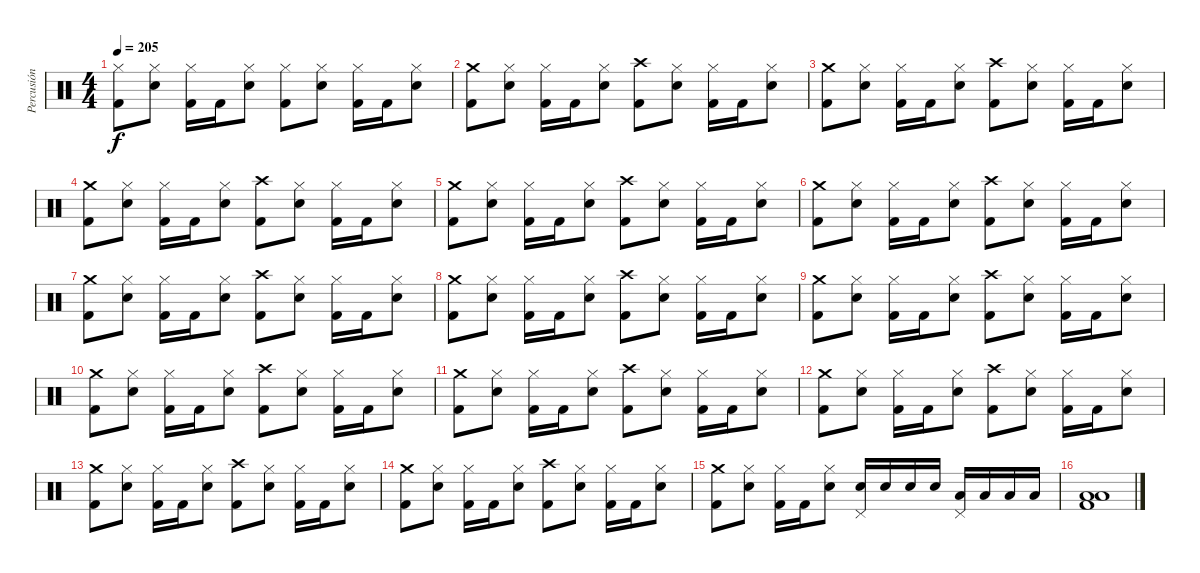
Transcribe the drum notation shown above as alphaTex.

\track ("Percusión" "Percusión") {instrument percussion}
\staff {score}
\articulation defaults
\ts (4 4)
\tempo 205
\clef neutral
\ks c
("Hi-Hat (closed)" "Kick (hit) 2").8{dy f} ("Hi-Hat (closed)" "Snare (hit) 2").8 ("Hi-Hat (closed)" "Kick (hit) 2").16 "Kick (hit) 2".16 ("Hi-Hat (closed)" "Snare (hit) 2").8 ("Hi-Hat (closed)" "Kick (hit) 2").8 ("Hi-Hat (closed)" "Snare (hit) 2").8 ("Hi-Hat (closed)" "Kick (hit) 2").16 "Kick (hit) 2".16 ("Hi-Hat (closed)" "Snare (hit) 2").8 |
("Crash medium (hit)" "Kick (hit) 2").8 ("Hi-Hat (closed)" "Snare (hit) 2").8 ("Hi-Hat (closed)" "Kick (hit) 2").16 "Kick (hit) 2".16 ("Hi-Hat (closed)" "Snare (hit) 2").8 ("Crash high (hit)" "Kick (hit) 2").8 ("Hi-Hat (closed)" "Snare (hit) 2").8 ("Hi-Hat (closed)" "Kick (hit) 2").16 "Kick (hit) 2".16 ("Hi-Hat (closed)" "Snare (hit) 2").8 |
("Crash medium (hit)" "Kick (hit) 2").8 ("Hi-Hat (closed)" "Snare (hit) 2").8 ("Hi-Hat (closed)" "Kick (hit) 2").16 "Kick (hit) 2".16 ("Hi-Hat (closed)" "Snare (hit) 2").8 ("Crash high (hit)" "Kick (hit) 2").8 ("Hi-Hat (closed)" "Snare (hit) 2").8 ("Hi-Hat (closed)" "Kick (hit) 2").16 "Kick (hit) 2".16 ("Hi-Hat (closed)" "Snare (hit) 2").8 |
("Crash medium (hit)" "Kick (hit) 2").8 ("Hi-Hat (closed)" "Snare (hit) 2").8 ("Hi-Hat (closed)" "Kick (hit) 2").16 "Kick (hit) 2".16 ("Hi-Hat (closed)" "Snare (hit) 2").8 ("Crash high (hit)" "Kick (hit) 2").8 ("Hi-Hat (closed)" "Snare (hit) 2").8 ("Hi-Hat (closed)" "Kick (hit) 2").16 "Kick (hit) 2".16 ("Hi-Hat (closed)" "Snare (hit) 2").8 |
("Crash medium (hit)" "Kick (hit) 2").8 ("Hi-Hat (closed)" "Snare (hit) 2").8 ("Hi-Hat (closed)" "Kick (hit) 2").16 "Kick (hit) 2".16 ("Hi-Hat (closed)" "Snare (hit) 2").8 ("Crash high (hit)" "Kick (hit) 2").8 ("Hi-Hat (closed)" "Snare (hit) 2").8 ("Hi-Hat (closed)" "Kick (hit) 2").16 "Kick (hit) 2".16 ("Hi-Hat (closed)" "Snare (hit) 2").8 |
("Crash medium (hit)" "Kick (hit) 2").8 ("Hi-Hat (closed)" "Snare (hit) 2").8 ("Hi-Hat (closed)" "Kick (hit) 2").16 "Kick (hit) 2".16 ("Hi-Hat (closed)" "Snare (hit) 2").8 ("Crash high (hit)" "Kick (hit) 2").8 ("Hi-Hat (closed)" "Snare (hit) 2").8 ("Hi-Hat (closed)" "Kick (hit) 2").16 "Kick (hit) 2".16 ("Hi-Hat (closed)" "Snare (hit) 2").8 |
("Crash medium (hit)" "Kick (hit) 2").8 ("Hi-Hat (closed)" "Snare (hit) 2").8 ("Hi-Hat (closed)" "Kick (hit) 2").16 "Kick (hit) 2".16 ("Hi-Hat (closed)" "Snare (hit) 2").8 ("Crash high (hit)" "Kick (hit) 2").8 ("Hi-Hat (closed)" "Snare (hit) 2").8 ("Hi-Hat (closed)" "Kick (hit) 2").16 "Kick (hit) 2".16 ("Hi-Hat (closed)" "Snare (hit) 2").8 |
("Crash medium (hit)" "Kick (hit) 2").8 ("Hi-Hat (closed)" "Snare (hit) 2").8 ("Hi-Hat (closed)" "Kick (hit) 2").16 "Kick (hit) 2".16 ("Hi-Hat (closed)" "Snare (hit) 2").8 ("Crash high (hit)" "Kick (hit) 2").8 ("Hi-Hat (closed)" "Snare (hit) 2").8 ("Hi-Hat (closed)" "Kick (hit) 2").16 "Kick (hit) 2".16 ("Hi-Hat (closed)" "Snare (hit) 2").8 |
("Crash medium (hit)" "Kick (hit) 2").8 ("Hi-Hat (closed)" "Snare (hit) 2").8 ("Hi-Hat (closed)" "Kick (hit) 2").16 "Kick (hit) 2".16 ("Hi-Hat (closed)" "Snare (hit) 2").8 ("Crash high (hit)" "Kick (hit) 2").8 ("Hi-Hat (closed)" "Snare (hit) 2").8 ("Hi-Hat (closed)" "Kick (hit) 2").16 "Kick (hit) 2".16 ("Hi-Hat (closed)" "Snare (hit) 2").8 |
("Crash medium (hit)" "Kick (hit) 2").8 ("Hi-Hat (closed)" "Snare (hit) 2").8 ("Hi-Hat (closed)" "Kick (hit) 2").16 "Kick (hit) 2".16 ("Hi-Hat (closed)" "Snare (hit) 2").8 ("Crash high (hit)" "Kick (hit) 2").8 ("Hi-Hat (closed)" "Snare (hit) 2").8 ("Hi-Hat (closed)" "Kick (hit) 2").16 "Kick (hit) 2".16 ("Hi-Hat (closed)" "Snare (hit) 2").8 |
("Crash medium (hit)" "Kick (hit) 2").8 ("Hi-Hat (closed)" "Snare (hit) 2").8 ("Hi-Hat (closed)" "Kick (hit) 2").16 "Kick (hit) 2".16 ("Hi-Hat (closed)" "Snare (hit) 2").8 ("Crash high (hit)" "Kick (hit) 2").8 ("Hi-Hat (closed)" "Snare (hit) 2").8 ("Hi-Hat (closed)" "Kick (hit) 2").16 "Kick (hit) 2".16 ("Hi-Hat (closed)" "Snare (hit) 2").8 |
("Crash medium (hit)" "Kick (hit) 2").8 ("Hi-Hat (closed)" "Snare (hit) 2").8 ("Hi-Hat (closed)" "Kick (hit) 2").16 "Kick (hit) 2".16 ("Hi-Hat (closed)" "Snare (hit) 2").8 ("Crash high (hit)" "Kick (hit) 2").8 ("Hi-Hat (closed)" "Snare (hit) 2").8 ("Hi-Hat (closed)" "Kick (hit) 2").16 "Kick (hit) 2".16 ("Hi-Hat (closed)" "Snare (hit) 2").8 |
("Crash medium (hit)" "Kick (hit) 2").8 ("Hi-Hat (closed)" "Snare (hit) 2").8 ("Hi-Hat (closed)" "Kick (hit) 2").16 "Kick (hit) 2".16 ("Hi-Hat (closed)" "Snare (hit) 2").8 ("Crash high (hit)" "Kick (hit) 2").8 ("Hi-Hat (closed)" "Snare (hit) 2").8 ("Hi-Hat (closed)" "Kick (hit) 2").16 "Kick (hit) 2".16 ("Hi-Hat (closed)" "Snare (hit) 2").8 |
("Crash medium (hit)" "Kick (hit) 2").8 ("Hi-Hat (closed)" "Snare (hit) 2").8 ("Hi-Hat (closed)" "Kick (hit) 2").16 "Kick (hit) 2".16 ("Hi-Hat (closed)" "Snare (hit) 2").8 ("Crash high (hit)" "Kick (hit) 2").8 ("Hi-Hat (closed)" "Snare (hit) 2").8 ("Hi-Hat (closed)" "Kick (hit) 2").16 "Kick (hit) 2".16 ("Hi-Hat (closed)" "Snare (hit) 2").8 |
("Crash medium (hit)" "Kick (hit) 2").8 ("Hi-Hat (closed)" "Snare (hit) 2").8 ("Hi-Hat (closed)" "Kick (hit) 2").16 "Kick (hit) 2".16 ("Hi-Hat (closed)" "Snare (hit) 2").8 ("Snare (hit) 2" "Pedal Hi-Hat (hit)").16 "Snare (hit) 2".16 "Snare (hit) 2".16 "Snare (hit) 2".16 ("Low Tom (hit)" "Pedal Hi-Hat (hit)").16 "Low Tom (hit)".16 "Low Tom (hit)".16 "Low Tom (hit)".16 |
("Low Tom (hit)" "Low Tom (hit)" "Kick (hit) 2").1
